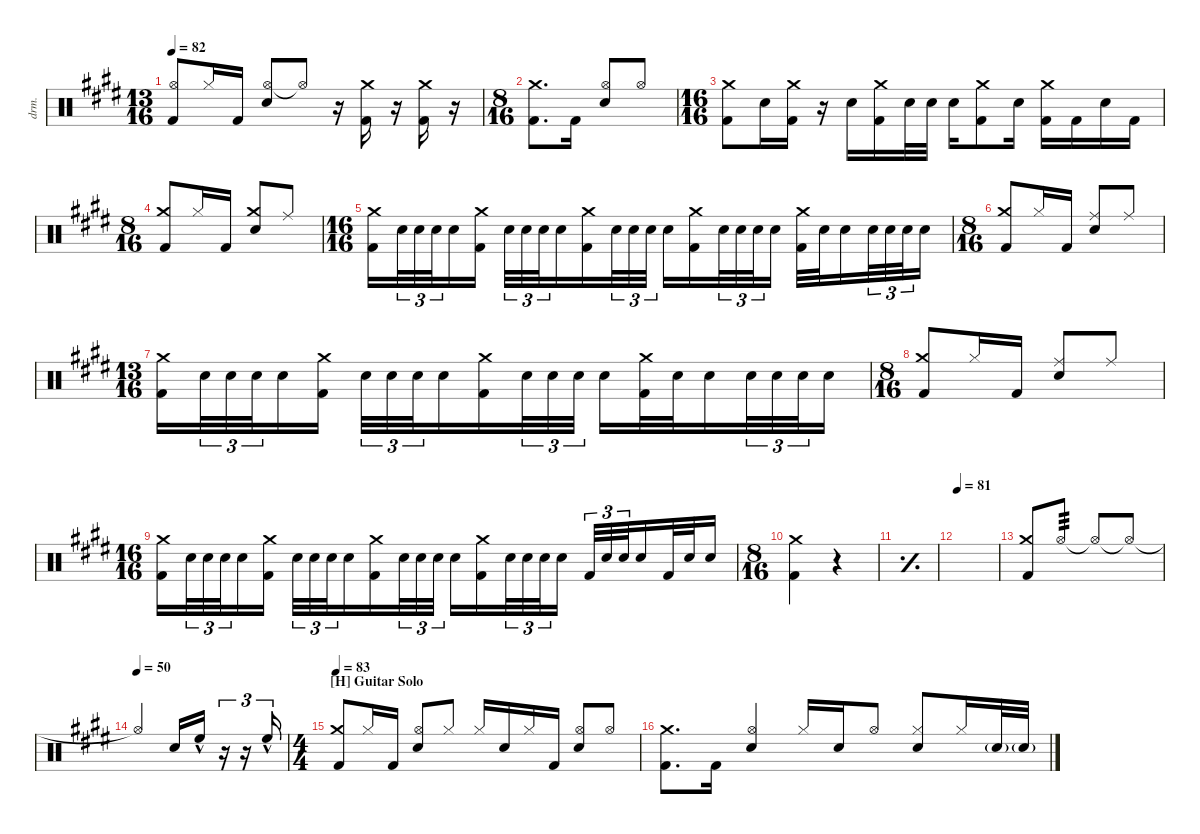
\defaultSystemsLayout 4
\hideDynamics
\bracketExtendMode groupsimilarinstruments
\otherSystemsTrackNameOrientation horizontal
\chordDiagramsInScore
\track ("Drumkit" "drm.") {instrument percussion}
\staff {score}
\articulation defaults
\ts (13 16)
\beaming (16 3 3 3 2 2)
\tempo 82
\clef neutral
\ks e
("Kick (hit) 2"{acc forcenatural} "Hi-Hat (open)"{acc forcenatural}).8{dy mf beam Up} "Hi-Hat (closed)"{acc forcenatural}.16{beam Up beam merge} "Kick (hit) 2"{acc forcenatural}.16{beam Up beam split} ("Hi-Hat (open)"{acc forcenatural} "Snare (hit) 2"{acc forcenatural}).8{beam Up beam merge} "Hi-Hat (open)"{t acc forcenatural}.8{beam Up} r.16 ("Crash medium (hit)"{acc forcenatural} "Kick (hit) 2"{acc forcenatural}).16 r.16 ("Crash medium (hit)"{acc forcenatural} "Kick (hit) 2"{acc forcenatural}).16 r.16 |
\ts (8 16)
\beaming (8 2 2)
("Kick (hit) 2"{acc forcenatural} "Crash medium (hit)"{acc forcenatural}).8{d} "Kick (hit) 2"{acc forcenatural}.16 ("Snare (hit) 2"{acc forcenatural} "Hi-Hat (open)"{acc forcenatural}).8{beam Up} "Hi-Hat (open)"{acc forcenatural}.8{beam Up} |
\ts (16 16)
\beaming (8 2 2 2 2)
("Crash medium (hit)"{acc forcenatural} "Kick (hit) 2"{acc forcenatural}).8 "Snare (hit) 2"{acc forcenatural}.16 ("Crash medium (hit)"{acc forcenatural} "Kick (hit) 2"{acc forcenatural}).16 r.16 "Snare (hit) 2"{acc forcenatural}.16 ("Crash medium (hit)"{acc forcenatural} "Kick (hit) 2"{acc forcenatural}).16 "Snare (hit) 2"{acc forcenatural}.32 "Snare (hit) 2"{acc forcenatural}.32 "Snare (hit) 2"{acc forcenatural}.16 ("Crash medium (hit)"{acc forcenatural} "Kick (hit) 2"{acc forcenatural}).8 "Snare (hit) 2"{acc forcenatural}.16 ("Crash medium (hit)"{acc forcenatural} "Kick (hit) 2"{acc forcenatural}).16 "Kick (hit) 2"{acc forcenatural}.16 "Snare (hit) 2"{acc forcenatural}.16 "Kick (hit) 2"{acc forcenatural}.16 |
\ts (8 16)
\beaming (8 2 2)
("Kick (hit) 2"{acc forcenatural} "Crash medium (hit)"{acc forcenatural}).8{beam Up} "Hi-Hat (closed)"{acc forcenatural}.16{beam Up} "Kick (hit) 2"{acc forcenatural}.16{beam Up} ("Crash medium (hit)"{acc forcenatural} "Snare (hit) 2"{acc forcenatural}).8{beam Up} "Ride (middle)"{acc forcenatural}.8{beam Up} |
\ts (16 16)
\beaming (8 2 2 2 2)
("Crash medium (hit)"{acc forcenatural} "Kick (hit) 2"{acc forcenatural}).16{beam merge} "Snare (hit) 2"{acc forcenatural}.32{tu (3 2)} "Snare (hit) 2"{acc forcenatural}.32{tu (3 2)} "Snare (hit) 2"{acc forcenatural}.32{tu (3 2) beam merge} "Snare (hit) 2"{acc forcenatural}.16 ("Kick (hit) 2"{acc forcenatural} "Crash medium (hit)"{acc forcenatural}).16 "Snare (hit) 2"{acc forcenatural}.32{tu (3 2)} "Snare (hit) 2"{acc forcenatural}.32{tu (3 2)} "Snare (hit) 2"{acc forcenatural}.32{tu (3 2) beam merge} "Snare (hit) 2"{acc forcenatural}.16 ("Kick (hit) 2"{acc forcenatural} "Crash medium (hit)"{acc forcenatural}).16{beam merge} "Snare (hit) 2"{acc forcenatural}.32{tu (3 2)} "Snare (hit) 2"{acc forcenatural}.32{tu (3 2)} "Snare (hit) 2"{acc forcenatural}.32{tu (3 2) beam split} "Snare (hit) 2"{acc forcenatural}.16 ("Kick (hit) 2"{acc forcenatural} "Crash medium (hit)"{acc forcenatural}).16{beam merge} "Snare (hit) 2"{acc forcenatural}.32{tu (3 2)} "Snare (hit) 2"{acc forcenatural}.32{tu (3 2)} "Snare (hit) 2"{acc forcenatural}.32{tu (3 2) beam merge} "Snare (hit) 2"{acc forcenatural}.16 ("Kick (hit) 2"{acc forcenatural} "Crash medium (hit)"{acc forcenatural}).32{beam merge} "Snare (hit) 2"{acc forcenatural}.32 "Snare (hit) 2"{acc forcenatural}.16{beam merge} "Snare (hit) 2"{acc forcenatural}.32{tu (3 2)} "Snare (hit) 2"{acc forcenatural}.32{tu (3 2)} "Snare (hit) 2"{acc forcenatural}.32{tu (3 2) beam merge} "Snare (hit) 2"{acc forcenatural}.16 |
\ts (8 16)
\beaming (8 2 2)
("Kick (hit) 2"{acc forcenatural} "Crash medium (hit)"{acc forcenatural}).8{beam Up} "Hi-Hat (closed)"{acc forcenatural}.16{beam Up} "Kick (hit) 2"{acc forcenatural}.16{beam Up} ("Snare (hit) 2"{acc forcenatural} "Ride (middle)"{acc forcenatural}).8{beam Up} "Ride (middle)"{acc forcenatural}.8{beam Up} |
\ts (13 16)
\beaming (16 3 3 3 2 2)
("Crash medium (hit)"{acc forcenatural} "Kick (hit) 2"{acc forcenatural}).16{beam merge} "Snare (hit) 2"{acc forcenatural}.32{tu (3 2)} "Snare (hit) 2"{acc forcenatural}.32{tu (3 2)} "Snare (hit) 2"{acc forcenatural}.32{tu (3 2) beam merge} "Snare (hit) 2"{acc forcenatural}.16{beam merge} ("Kick (hit) 2"{acc forcenatural} "Crash medium (hit)"{acc forcenatural}).16 "Snare (hit) 2"{acc forcenatural}.32{tu (3 2)} "Snare (hit) 2"{acc forcenatural}.32{tu (3 2)} "Snare (hit) 2"{acc forcenatural}.32{tu (3 2) beam merge} "Snare (hit) 2"{acc forcenatural}.16{beam merge} ("Kick (hit) 2"{acc forcenatural} "Crash medium (hit)"{acc forcenatural}).16{beam merge} "Snare (hit) 2"{acc forcenatural}.32{tu (3 2)} "Snare (hit) 2"{acc forcenatural}.32{tu (3 2)} "Snare (hit) 2"{acc forcenatural}.32{tu (3 2) beam split} "Snare (hit) 2"{acc forcenatural}.16{beam merge} ("Kick (hit) 2"{acc forcenatural} "Crash medium (hit)"{acc forcenatural}).32 "Snare (hit) 2"{acc forcenatural}.32 "Snare (hit) 2"{acc forcenatural}.16{beam merge} "Snare (hit) 2"{acc forcenatural}.32{tu (3 2)} "Snare (hit) 2"{acc forcenatural}.32{tu (3 2)} "Snare (hit) 2"{acc forcenatural}.32{tu (3 2) beam merge} "Snare (hit) 2"{acc forcenatural}.16 |
\ts (8 16)
\beaming (8 2 2)
("Kick (hit) 2"{acc forcenatural} "Crash medium (hit)"{acc forcenatural}).8{beam Up} "Hi-Hat (closed)"{acc forcenatural}.16{beam Up} "Kick (hit) 2"{acc forcenatural}.16{beam Up} ("Snare (hit) 2"{acc forcenatural} "Ride (middle)"{acc forcenatural}).8{beam Up} "Ride (middle)"{acc forcenatural}.8{beam Up} |
\ts (16 16)
\beaming (8 2 2 2 2)
("Crash medium (hit)"{acc forcenatural} "Kick (hit) 2"{acc forcenatural}).16{beam merge} "Snare (hit) 2"{acc forcenatural}.32{tu (3 2)} "Snare (hit) 2"{acc forcenatural}.32{tu (3 2)} "Snare (hit) 2"{acc forcenatural}.32{tu (3 2) beam merge} "Snare (hit) 2"{acc forcenatural}.16{beam merge} ("Kick (hit) 2"{acc forcenatural} "Crash medium (hit)"{acc forcenatural}).16 "Snare (hit) 2"{acc forcenatural}.32{tu (3 2)} "Snare (hit) 2"{acc forcenatural}.32{tu (3 2)} "Snare (hit) 2"{acc forcenatural}.32{tu (3 2) beam merge} "Snare (hit) 2"{acc forcenatural}.16{beam merge} ("Kick (hit) 2"{acc forcenatural} "Crash medium (hit)"{acc forcenatural}).16{beam merge} "Snare (hit) 2"{acc forcenatural}.32{tu (3 2)} "Snare (hit) 2"{acc forcenatural}.32{tu (3 2)} "Snare (hit) 2"{acc forcenatural}.32{tu (3 2) beam split} "Snare (hit) 2"{acc forcenatural}.16 ("Crash medium (hit)"{acc forcenatural} "Kick (hit) 2"{acc forcenatural}).16{beam merge} "Snare (hit) 2"{acc forcenatural}.32{tu (3 2)} "Snare (hit) 2"{acc forcenatural}.32{tu (3 2)} "Snare (hit) 2"{acc forcenatural}.32{tu (3 2) beam merge} "Snare (hit) 2"{acc forcenatural}.16 "Kick (hit) 2"{acc forcenatural}.32{tu (3 2)} "Snare (hit) 2"{acc forcenatural}.32{tu (3 2)} "Snare (hit) 2"{acc forcenatural}.32{tu (3 2) beam merge} "Snare (hit) 2"{acc forcenatural}.16 "Kick (hit) 2"{acc forcenatural}.32 "Snare (hit) 2"{acc forcenatural}.32 "Snare (hit) 2"{acc forcenatural}.16 |
\ts (8 16)
\beaming (8 2 2)
("Kick (hit) 2"{acc forcenatural} "Crash medium (hit)"{acc forcenatural}).4 r.4 |
\simile simple
|
\tempo 81
|
\simile none
("Crash medium (hit)"{acc forcenatural} "Kick (hit) 2"{acc forcenatural}).8{beam Up} "Hi-Hat (open)"{acc forcenatural}.8{tp 3 beam Up} "Hi-Hat (open)"{t acc forcenatural}.8{beam Up} "Hi-Hat (open)"{t acc forcenatural}.8{beam Up} |
\tempo (50)
"Hi-Hat (open)"{t acc forcenatural}.4{beam Up} "Snare (hit) 2"{acc forcenatural}.16{beam Up} "High Floor Tom (hit)"{hac acc forcenatural}.16{beam Up} r.16{tu (3 2)} r.16{tu (3 2)} "High Floor Tom (hit)"{hac acc forcenatural}.16{tu (3 2) beam Up} |
\ts (4 4)
\beaming (8 2 2 2 2)
\section ("H" "Guitar Solo")
\tempo 83
("Crash medium (hit)"{acc forcenatural} "Kick (hit) 2"{acc forcenatural}).8{beam Up} "Hi-Hat (closed)"{acc forcenatural}.16{beam Up} "Kick (hit) 2"{acc forcenatural}.16{beam Up} ("Hi-Hat (open)"{acc forcenatural} "Snare (hit) 2"{acc forcenatural}).8{beam Up} "Hi-Hat (closed)"{acc forcenatural}.8{beam Up} "Hi-Hat (closed)"{acc forcenatural}.16{beam Up} "Snare (hit) 2"{acc forcenatural}.16{beam Up} "Hi-Hat (closed)"{acc forcenatural}.16{beam Up} "Kick (hit) 2"{acc forcenatural}.16{beam Up} ("Hi-Hat (open)"{acc forcenatural} "Snare (hit) 2"{acc forcenatural}).8{beam Up} "Hi-Hat (open)"{acc forcenatural}.8{beam Up} |
("Crash medium (hit)"{acc forcenatural} "Kick (hit) 2"{acc forcenatural}).8{d} "Kick (hit) 2"{acc forcenatural}.16 ("Hi-Hat (open)"{acc forcenatural} "Snare (hit) 2"{acc forcenatural}).4{beam Up} "Hi-Hat (closed)"{acc forcenatural}.16{beam Up} "Snare (hit) 2"{acc forcenatural}.16{beam Up} "Hi-Hat (open)"{acc forcenatural}.8{beam Up} ("Hi-Hat (closed)"{acc forcenatural} "Snare (hit) 2"{acc forcenatural}).8{beam Up} "Hi-Hat (closed)"{acc forcenatural}.16{beam Up} "Snare (hit) 2"{g acc forcenatural}.32{beam Up} "Snare (hit) 2"{g acc forcenatural}.32{beam Up}
